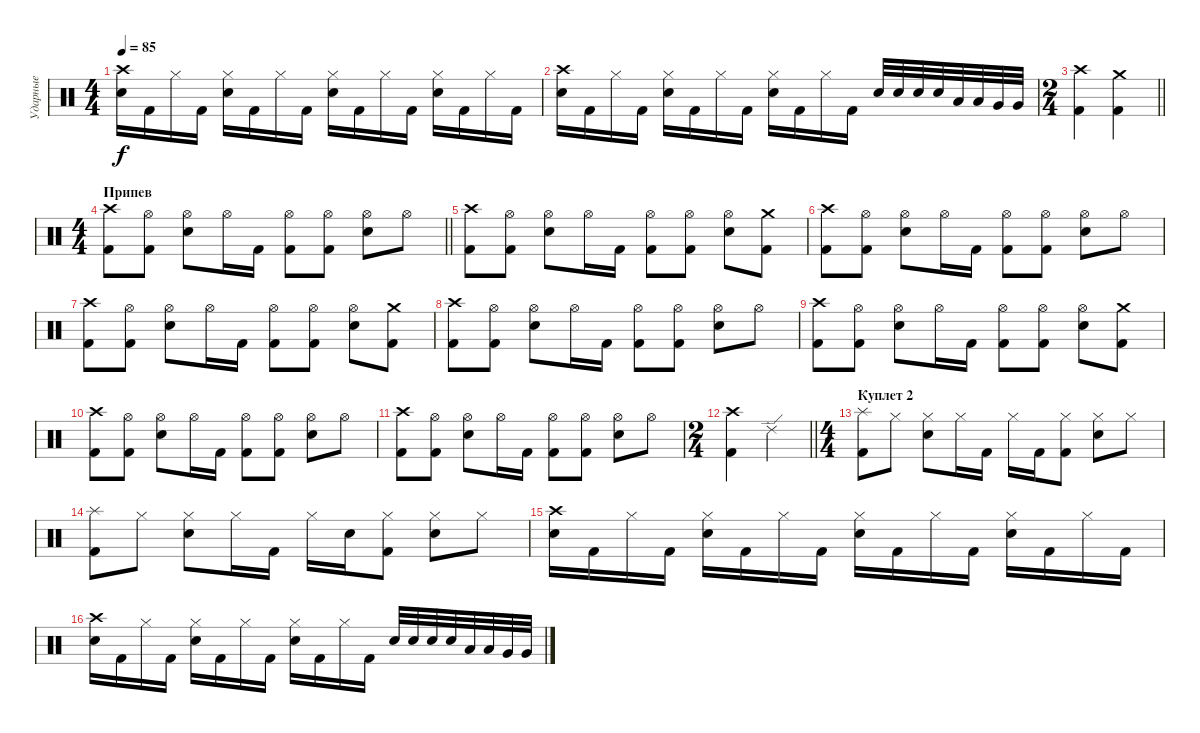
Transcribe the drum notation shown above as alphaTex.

\track ("Ударные" "Ударные") {instrument percussion}
\staff {score}
\articulation defaults
\ts (4 4)
\tempo 85
\clef neutral
\ks c
("Crash high (hit)" "Snare (hit) 2").16{dy f} "Kick (hit) 2".16 "Hi-Hat (closed)".16 "Kick (hit) 2".16 ("Hi-Hat (closed)" "Snare (hit) 2").16 "Kick (hit) 2".16 "Hi-Hat (closed)".16 "Kick (hit) 2".16 ("Hi-Hat (closed)" "Snare (hit) 2").16 "Kick (hit) 2".16 "Hi-Hat (closed)".16 "Kick (hit) 2".16 ("Hi-Hat (closed)" "Snare (hit) 2").16 "Kick (hit) 2".16 "Hi-Hat (closed)".16 "Kick (hit) 2".16 |
("Crash high (hit)" "Snare (hit) 2").16 "Kick (hit) 2".16 "Hi-Hat (closed)".16 "Kick (hit) 2".16 ("Hi-Hat (closed)" "Snare (hit) 2").16 "Kick (hit) 2".16 "Hi-Hat (closed)".16 "Kick (hit) 2".16 ("Hi-Hat (closed)" "Snare (hit) 2").16 "Kick (hit) 2".16 "Hi-Hat (closed)".16 "Kick (hit) 2".16 "Snare (hit) 2".32 "Snare (hit) 2".32 "Snare (hit) 2".32 "Snare (hit) 2".32 "Low Tom (hit)".32 "Low Tom (hit)".32 "Very Low Tom (hit)".32 "Very Low Tom (hit)".32 |
\ts (2 4)
\barLineRight lightlight
("Crash high (hit)" "Kick (hit) 2").4 ("Crash medium (hit)" "Kick (hit) 2").4 |
\ts (4 4)
\section ("" "Припев")
\barLineRight lightlight
("Crash high (hit)" "Kick (hit) 2").8 ("Hi-Hat (open)" "Kick (hit) 2").8 ("Hi-Hat (open)" "Snare (hit) 2").8 "Hi-Hat (open)".16 "Kick (hit) 2".16 ("Hi-Hat (open)" "Kick (hit) 2").8 ("Hi-Hat (open)" "Kick (hit) 2").8 ("Hi-Hat (open)" "Snare (hit) 2").8 "Hi-Hat (open)".8 |
("Crash high (hit)" "Kick (hit) 2").8 ("Hi-Hat (open)" "Kick (hit) 2").8 ("Hi-Hat (open)" "Snare (hit) 2").8 "Hi-Hat (open)".16 "Kick (hit) 2".16 ("Hi-Hat (open)" "Kick (hit) 2").8 ("Hi-Hat (open)" "Kick (hit) 2").8 ("Hi-Hat (open)" "Snare (hit) 2").8 ("Crash medium (hit)" "Kick (hit) 2").8 |
("Crash high (hit)" "Kick (hit) 2").8 ("Hi-Hat (open)" "Kick (hit) 2").8 ("Hi-Hat (open)" "Snare (hit) 2").8 "Hi-Hat (open)".16 "Kick (hit) 2".16 ("Hi-Hat (open)" "Kick (hit) 2").8 ("Hi-Hat (open)" "Kick (hit) 2").8 ("Hi-Hat (open)" "Snare (hit) 2").8 "Hi-Hat (open)".8 |
("Crash high (hit)" "Kick (hit) 2").8 ("Hi-Hat (open)" "Kick (hit) 2").8 ("Hi-Hat (open)" "Snare (hit) 2").8 "Hi-Hat (open)".16 "Kick (hit) 2".16 ("Hi-Hat (open)" "Kick (hit) 2").8 ("Hi-Hat (open)" "Kick (hit) 2").8 ("Hi-Hat (open)" "Snare (hit) 2").8 ("Crash medium (hit)" "Kick (hit) 2").8 |
("Crash high (hit)" "Kick (hit) 2").8 ("Hi-Hat (open)" "Kick (hit) 2").8 ("Hi-Hat (open)" "Snare (hit) 2").8 "Hi-Hat (open)".16 "Kick (hit) 2".16 ("Hi-Hat (open)" "Kick (hit) 2").8 ("Hi-Hat (open)" "Kick (hit) 2").8 ("Hi-Hat (open)" "Snare (hit) 2").8 "Hi-Hat (open)".8 |
("Crash high (hit)" "Kick (hit) 2").8 ("Hi-Hat (open)" "Kick (hit) 2").8 ("Hi-Hat (open)" "Snare (hit) 2").8 "Hi-Hat (open)".16 "Kick (hit) 2".16 ("Hi-Hat (open)" "Kick (hit) 2").8 ("Hi-Hat (open)" "Kick (hit) 2").8 ("Hi-Hat (open)" "Snare (hit) 2").8 ("Crash medium (hit)" "Kick (hit) 2").8 |
("Crash high (hit)" "Kick (hit) 2").8 ("Hi-Hat (open)" "Kick (hit) 2").8 ("Hi-Hat (open)" "Snare (hit) 2").8 "Hi-Hat (open)".16 "Kick (hit) 2".16 ("Hi-Hat (open)" "Kick (hit) 2").8 ("Hi-Hat (open)" "Kick (hit) 2").8 ("Hi-Hat (open)" "Snare (hit) 2").8 "Hi-Hat (open)".8 |
("Crash high (hit)" "Kick (hit) 2").8 ("Hi-Hat (open)" "Kick (hit) 2").8 ("Hi-Hat (open)" "Snare (hit) 2").8 "Hi-Hat (open)".16 "Kick (hit) 2".16 ("Hi-Hat (open)" "Kick (hit) 2").8 ("Hi-Hat (open)" "Kick (hit) 2").8 ("Hi-Hat (open)" "Snare (hit) 2").8 "Hi-Hat (open)".8 |
\ts (2 4)
\barLineRight lightlight
("Crash high (hit)" "Kick (hit) 2").4 "Ride (edge) 2".4 |
\ts (4 4)
\section ("" "Куплет 2")
("Splash (hit)" "Kick (hit) 2").8 "Hi-Hat (closed)".8 ("Hi-Hat (closed)" "Snare (hit) 2").8 "Hi-Hat (closed)".16 "Kick (hit) 2".16 "Hi-Hat (closed)".16 "Kick (hit) 2".16 ("Hi-Hat (closed)" "Kick (hit) 2").8 ("Hi-Hat (closed)" "Snare (hit) 2").8 "Hi-Hat (closed)".8 |
("Splash (hit)" "Kick (hit) 2").8 "Hi-Hat (closed)".8 ("Hi-Hat (closed)" "Snare (hit) 2").8 "Hi-Hat (closed)".16 "Kick (hit) 2".16 "Hi-Hat (closed)".16 "Snare (hit) 2".16 ("Hi-Hat (closed)" "Kick (hit) 2").8 ("Hi-Hat (closed)" "Snare (hit) 2").8 "Hi-Hat (closed)".8 |
("Crash high (hit)" "Snare (hit) 2").16 "Kick (hit) 2".16 "Hi-Hat (closed)".16 "Kick (hit) 2".16 ("Hi-Hat (closed)" "Snare (hit) 2").16 "Kick (hit) 2".16 "Hi-Hat (closed)".16 "Kick (hit) 2".16 ("Hi-Hat (closed)" "Snare (hit) 2").16 "Kick (hit) 2".16 "Hi-Hat (closed)".16 "Kick (hit) 2".16 ("Hi-Hat (closed)" "Snare (hit) 2").16 "Kick (hit) 2".16 "Hi-Hat (closed)".16 "Kick (hit) 2".16 |
("Crash high (hit)" "Snare (hit) 2").16 "Kick (hit) 2".16 "Hi-Hat (closed)".16 "Kick (hit) 2".16 ("Hi-Hat (closed)" "Snare (hit) 2").16 "Kick (hit) 2".16 "Hi-Hat (closed)".16 "Kick (hit) 2".16 ("Hi-Hat (closed)" "Snare (hit) 2").16 "Kick (hit) 2".16 "Hi-Hat (closed)".16 "Kick (hit) 2".16 "Snare (hit) 2".32 "Snare (hit) 2".32 "Snare (hit) 2".32 "Snare (hit) 2".32 "Low Tom (hit)".32 "Low Tom (hit)".32 "Very Low Tom (hit)".32 "Very Low Tom (hit)".32
